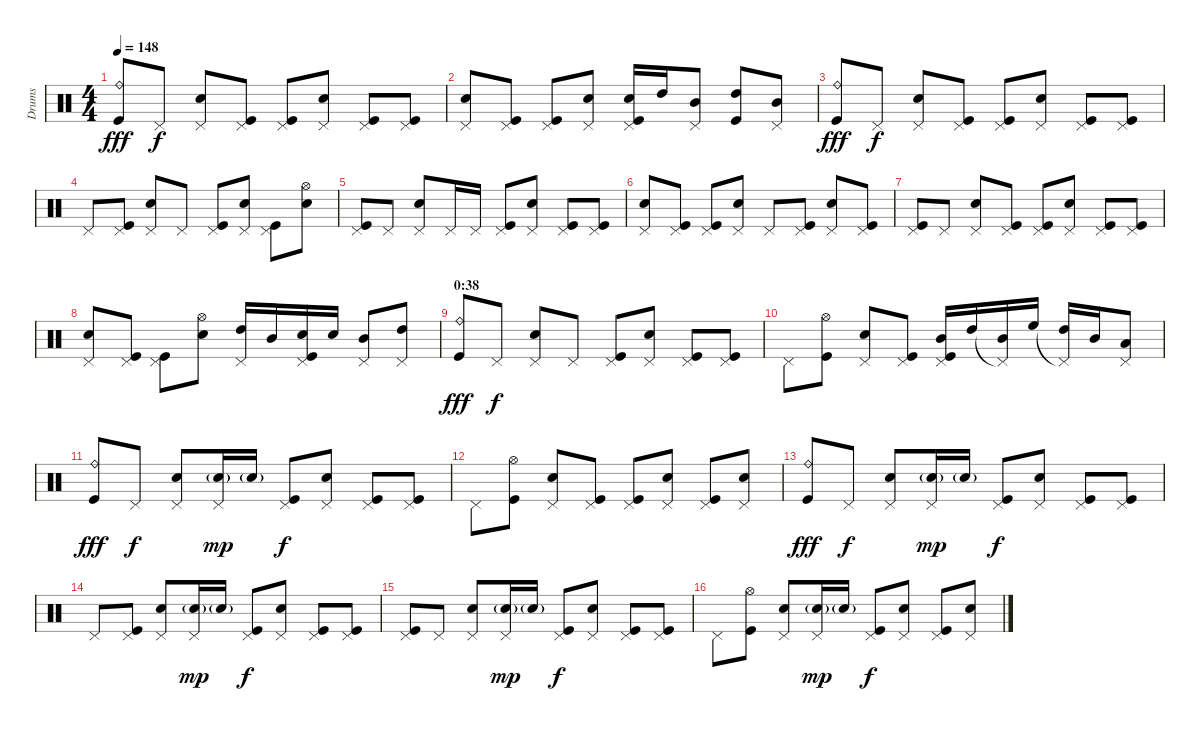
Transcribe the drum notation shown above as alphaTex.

\track ("Drums" "Drums") {instrument percussion}
\staff {score}
\articulation defaults
\ts (4 4)
\tempo 148
\clef neutral
\ks c
("Ride (bell)" "Kick (hit)").8{dy fff} "Pedal Hi-Hat (hit)".8{dy f} ("Pedal Hi-Hat (hit)" "Electric Snare (hit)").8 ("Pedal Hi-Hat (hit)" "Kick (hit)").8 ("Pedal Hi-Hat (hit)" "Kick (hit)").8 ("Pedal Hi-Hat (hit)" "Electric Snare (hit)").8 ("Pedal Hi-Hat (hit)" "Kick (hit)").8 ("Pedal Hi-Hat (hit)" "Kick (hit)").8 |
("Pedal Hi-Hat (hit)" "Electric Snare (hit)").8 ("Pedal Hi-Hat (hit)" "Kick (hit)").8 ("Pedal Hi-Hat (hit)" "Kick (hit)").8 ("Pedal Hi-Hat (hit)" "Electric Snare (hit)").8 ("Pedal Hi-Hat (hit)" "Electric Snare (hit)" "Kick (hit)").16 "High Tom (hit)".16 ("Pedal Hi-Hat (hit)" "Mid Tom (hit)").8 ("High Tom (hit)" "Kick (hit)").8 ("Pedal Hi-Hat (hit)" "Mid Tom (hit)").8 |
("Ride (bell)" "Kick (hit)").8{dy fff} "Pedal Hi-Hat (hit)".8{dy f} ("Pedal Hi-Hat (hit)" "Electric Snare (hit)").8 ("Pedal Hi-Hat (hit)" "Kick (hit)").8 ("Pedal Hi-Hat (hit)" "Kick (hit)").8 ("Pedal Hi-Hat (hit)" "Electric Snare (hit)").8 ("Pedal Hi-Hat (hit)" "Kick (hit)").8 ("Pedal Hi-Hat (hit)" "Kick (hit)").8 |
"Pedal Hi-Hat (hit)".8 ("Pedal Hi-Hat (hit)" "Kick (hit)").8 ("Pedal Hi-Hat (hit)" "Electric Snare (hit)").8 "Pedal Hi-Hat (hit)".8 ("Pedal Hi-Hat (hit)" "Kick (hit)").8 ("Pedal Hi-Hat (hit)" "Electric Snare (hit)").8 ("Pedal Hi-Hat (hit)" "Kick (hit)").8 ("Hi-Hat (open)" "Electric Snare (hit)").8 |
("Pedal Hi-Hat (hit)" "Kick (hit)").8 "Pedal Hi-Hat (hit)".8 ("Pedal Hi-Hat (hit)" "Electric Snare (hit)").8 "Pedal Hi-Hat (hit)".16 "Pedal Hi-Hat (hit)".16 ("Pedal Hi-Hat (hit)" "Kick (hit)").8 ("Pedal Hi-Hat (hit)" "Electric Snare (hit)").8 ("Pedal Hi-Hat (hit)" "Kick (hit)").8 ("Pedal Hi-Hat (hit)" "Kick (hit)").8 |
("Pedal Hi-Hat (hit)" "Electric Snare (hit)").8 ("Pedal Hi-Hat (hit)" "Kick (hit)").8 ("Pedal Hi-Hat (hit)" "Kick (hit)").8 ("Pedal Hi-Hat (hit)" "Electric Snare (hit)").8 "Pedal Hi-Hat (hit)".8 ("Pedal Hi-Hat (hit)" "Kick (hit)").8 ("Pedal Hi-Hat (hit)" "Electric Snare (hit)").8 ("Pedal Hi-Hat (hit)" "Kick (hit)").8 |
("Pedal Hi-Hat (hit)" "Kick (hit)").8 "Pedal Hi-Hat (hit)".8 ("Pedal Hi-Hat (hit)" "Electric Snare (hit)").8 ("Pedal Hi-Hat (hit)" "Kick (hit)").8 ("Pedal Hi-Hat (hit)" "Kick (hit)").8 ("Pedal Hi-Hat (hit)" "Electric Snare (hit)").8 ("Pedal Hi-Hat (hit)" "Kick (hit)").8 ("Pedal Hi-Hat (hit)" "Kick (hit)").8 |
("Pedal Hi-Hat (hit)" "Electric Snare (hit)").8 ("Pedal Hi-Hat (hit)" "Kick (hit)").8 ("Pedal Hi-Hat (hit)" "Kick (hit)").8 ("Hi-Hat (open)" "Electric Snare (hit)").8 ("Pedal Hi-Hat (hit)" "High Tom (hit)").16 "Mid Tom (hit)".16 ("Pedal Hi-Hat (hit)" "Electric Snare (hit)" "Kick (hit)").16 "Electric Snare (hit)".16 ("Pedal Hi-Hat (hit)" "Mid Tom (hit)").8 ("Pedal Hi-Hat (hit)" "High Tom (hit)").8 |
\section ("" "0:38")
("Ride (bell)" "Kick (hit)").8{dy fff} "Pedal Hi-Hat (hit)".8{dy f} ("Pedal Hi-Hat (hit)" "Electric Snare (hit)").8 "Pedal Hi-Hat (hit)".8 ("Pedal Hi-Hat (hit)" "Kick (hit)").8 ("Pedal Hi-Hat (hit)" "Electric Snare (hit)").8 ("Pedal Hi-Hat (hit)" "Kick (hit)").8 ("Pedal Hi-Hat (hit)" "Kick (hit)").8 |
"Pedal Hi-Hat (hit)".8 ("Hi-Hat (open)" "Kick (hit)").8 ("Pedal Hi-Hat (hit)" "Electric Snare (hit)").8 ("Pedal Hi-Hat (hit)" "Kick (hit)").8 ("Pedal Hi-Hat (hit)" "Mid Tom (hit)" "Kick (hit)").16 "High Tom (hit)".16 ("Pedal Hi-Hat (hit)"{t} "Mid Tom (hit)").16 "High Floor Tom (hit)".16 ("Pedal Hi-Hat (hit)"{t} "High Tom (hit)").16 "Mid Tom (hit)".16 ("Pedal Hi-Hat (hit)" "Low Tom (hit)").8 |
("Ride (bell)" "Kick (hit)").8{dy fff} "Pedal Hi-Hat (hit)".8{dy f} ("Pedal Hi-Hat (hit)" "Electric Snare (hit)").8 ("Pedal Hi-Hat (hit)" "Electric Snare (hit)"{g}).16{dy mp} "Electric Snare (hit)"{g}.16 ("Pedal Hi-Hat (hit)" "Kick (hit)").8{dy f} ("Pedal Hi-Hat (hit)" "Electric Snare (hit)").8 ("Pedal Hi-Hat (hit)" "Kick (hit)").8 ("Pedal Hi-Hat (hit)" "Kick (hit)").8 |
"Pedal Hi-Hat (hit)".8 ("Hi-Hat (open)" "Kick (hit)").8 ("Pedal Hi-Hat (hit)" "Electric Snare (hit)").8 ("Pedal Hi-Hat (hit)" "Kick (hit)").8 ("Pedal Hi-Hat (hit)" "Kick (hit)").8 ("Pedal Hi-Hat (hit)" "Electric Snare (hit)").8 ("Pedal Hi-Hat (hit)" "Kick (hit)").8 ("Pedal Hi-Hat (hit)" "Electric Snare (hit)").8 |
("Ride (bell)" "Kick (hit)").8{dy fff} "Pedal Hi-Hat (hit)".8{dy f} ("Pedal Hi-Hat (hit)" "Electric Snare (hit)").8 ("Pedal Hi-Hat (hit)" "Electric Snare (hit)"{g}).16{dy mp} "Electric Snare (hit)"{g}.16 ("Pedal Hi-Hat (hit)" "Kick (hit)").8{dy f} ("Pedal Hi-Hat (hit)" "Electric Snare (hit)").8 ("Pedal Hi-Hat (hit)" "Kick (hit)").8 ("Pedal Hi-Hat (hit)" "Kick (hit)").8 |
"Pedal Hi-Hat (hit)".8 ("Pedal Hi-Hat (hit)" "Kick (hit)").8 ("Pedal Hi-Hat (hit)" "Electric Snare (hit)").8 ("Pedal Hi-Hat (hit)" "Electric Snare (hit)"{g}).16{dy mp} "Electric Snare (hit)"{g}.16 ("Pedal Hi-Hat (hit)" "Kick (hit)").8{dy f} ("Pedal Hi-Hat (hit)" "Electric Snare (hit)").8 ("Pedal Hi-Hat (hit)" "Kick (hit)").8 ("Pedal Hi-Hat (hit)" "Kick (hit)").8 |
("Pedal Hi-Hat (hit)" "Kick (hit)").8 "Pedal Hi-Hat (hit)".8 ("Pedal Hi-Hat (hit)" "Electric Snare (hit)").8 ("Pedal Hi-Hat (hit)" "Electric Snare (hit)"{g}).16{dy mp} "Electric Snare (hit)"{g}.16 ("Pedal Hi-Hat (hit)" "Kick (hit)").8{dy f} ("Pedal Hi-Hat (hit)" "Electric Snare (hit)").8 ("Pedal Hi-Hat (hit)" "Kick (hit)").8 ("Pedal Hi-Hat (hit)" "Kick (hit)").8 |
"Pedal Hi-Hat (hit)".8 ("Hi-Hat (open)" "Kick (hit)").8 ("Pedal Hi-Hat (hit)" "Electric Snare (hit)").8 ("Pedal Hi-Hat (hit)" "Electric Snare (hit)"{g}).16{dy mp} "Electric Snare (hit)"{g}.16 ("Pedal Hi-Hat (hit)" "Kick (hit)").8{dy f} ("Pedal Hi-Hat (hit)" "Electric Snare (hit)").8 ("Pedal Hi-Hat (hit)" "Kick (hit)").8 ("Pedal Hi-Hat (hit)" "Electric Snare (hit)").8
